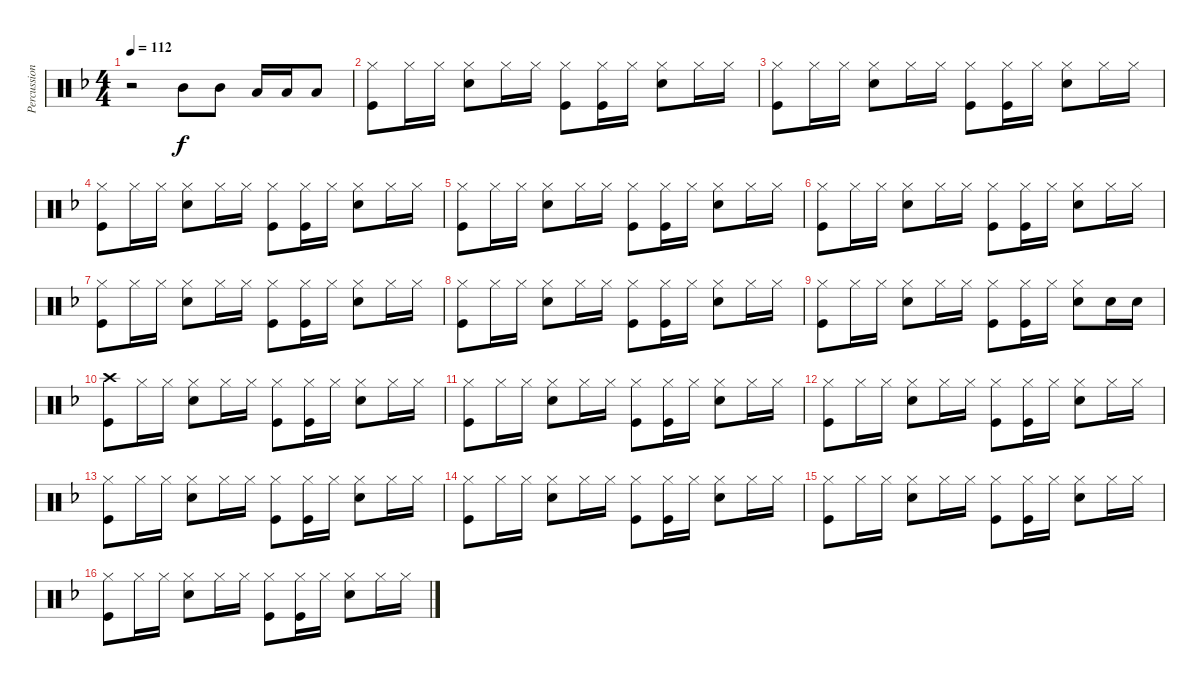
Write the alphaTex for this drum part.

\track ("Percussion" "Percussion") {instrument percussion}
\staff {score}
\articulation defaults
\ts (4 4)
\tempo 112
\clef neutral
\ks f
r.2{dy f} "Mid Tom (hit)".8 "Mid Tom (hit)".8 "Low Tom (hit)".16 "Low Tom (hit)".16 "Low Tom (hit)".8 |
("Hi-Hat (closed)" "Kick (hit)").8 "Hi-Hat (closed)".16 "Hi-Hat (closed)".16 ("Hi-Hat (closed)" "Snare (hit) 2").8 "Hi-Hat (closed)".16 "Hi-Hat (closed)".16 ("Hi-Hat (closed)" "Kick (hit)").8 ("Hi-Hat (closed)" "Kick (hit)").16 "Hi-Hat (closed)".16 ("Hi-Hat (closed)" "Snare (hit) 2").8 "Hi-Hat (closed)".16 "Hi-Hat (closed)".16 |
("Hi-Hat (closed)" "Kick (hit)").8 "Hi-Hat (closed)".16 "Hi-Hat (closed)".16 ("Hi-Hat (closed)" "Snare (hit) 2").8 "Hi-Hat (closed)".16 "Hi-Hat (closed)".16 ("Hi-Hat (closed)" "Kick (hit)").8 ("Hi-Hat (closed)" "Kick (hit)").16 "Hi-Hat (closed)".16 ("Hi-Hat (closed)" "Snare (hit) 2").8 "Hi-Hat (closed)".16 "Hi-Hat (closed)".16 |
("Hi-Hat (closed)" "Kick (hit)").8 "Hi-Hat (closed)".16 "Hi-Hat (closed)".16 ("Hi-Hat (closed)" "Snare (hit) 2").8 "Hi-Hat (closed)".16 "Hi-Hat (closed)".16 ("Hi-Hat (closed)" "Kick (hit)").8 ("Hi-Hat (closed)" "Kick (hit)").16 "Hi-Hat (closed)".16 ("Hi-Hat (closed)" "Snare (hit) 2").8 "Hi-Hat (closed)".16 "Hi-Hat (closed)".16 |
("Hi-Hat (closed)" "Kick (hit)").8 "Hi-Hat (closed)".16 "Hi-Hat (closed)".16 ("Hi-Hat (closed)" "Snare (hit) 2").8 "Hi-Hat (closed)".16 "Hi-Hat (closed)".16 ("Hi-Hat (closed)" "Kick (hit)").8 ("Hi-Hat (closed)" "Kick (hit)").16 "Hi-Hat (closed)".16 ("Hi-Hat (closed)" "Snare (hit) 2").8 "Hi-Hat (closed)".16 "Hi-Hat (closed)".16 |
("Hi-Hat (closed)" "Kick (hit)").8 "Hi-Hat (closed)".16 "Hi-Hat (closed)".16 ("Hi-Hat (closed)" "Snare (hit) 2").8 "Hi-Hat (closed)".16 "Hi-Hat (closed)".16 ("Hi-Hat (closed)" "Kick (hit)").8 ("Hi-Hat (closed)" "Kick (hit)").16 "Hi-Hat (closed)".16 ("Hi-Hat (closed)" "Snare (hit) 2").8 "Hi-Hat (closed)".16 "Hi-Hat (closed)".16 |
("Hi-Hat (closed)" "Kick (hit)").8 "Hi-Hat (closed)".16 "Hi-Hat (closed)".16 ("Hi-Hat (closed)" "Snare (hit) 2").8 "Hi-Hat (closed)".16 "Hi-Hat (closed)".16 ("Hi-Hat (closed)" "Kick (hit)").8 ("Hi-Hat (closed)" "Kick (hit)").16 "Hi-Hat (closed)".16 ("Hi-Hat (closed)" "Snare (hit) 2").8 "Hi-Hat (closed)".16 "Hi-Hat (closed)".16 |
("Hi-Hat (closed)" "Kick (hit)").8 "Hi-Hat (closed)".16 "Hi-Hat (closed)".16 ("Hi-Hat (closed)" "Snare (hit) 2").8 "Hi-Hat (closed)".16 "Hi-Hat (closed)".16 ("Hi-Hat (closed)" "Kick (hit)").8 ("Hi-Hat (closed)" "Kick (hit)").16 "Hi-Hat (closed)".16 ("Hi-Hat (closed)" "Snare (hit) 2").8 "Hi-Hat (closed)".16 "Hi-Hat (closed)".16 |
("Hi-Hat (closed)" "Kick (hit)").8 "Hi-Hat (closed)".16 "Hi-Hat (closed)".16 ("Hi-Hat (closed)" "Snare (hit) 2").8 "Hi-Hat (closed)".16 "Hi-Hat (closed)".16 ("Hi-Hat (closed)" "Kick (hit)").8 ("Hi-Hat (closed)" "Kick (hit)").16 "Hi-Hat (closed)".16 ("Hi-Hat (closed)" "Snare (hit) 2").8 "Snare (hit) 2".16 "Snare (hit) 2".16 |
("Crash high (hit)" "Kick (hit)").8 "Hi-Hat (closed)".16 "Hi-Hat (closed)".16 ("Hi-Hat (closed)" "Snare (hit) 2").8 "Hi-Hat (closed)".16 "Hi-Hat (closed)".16 ("Hi-Hat (closed)" "Kick (hit)").8 ("Hi-Hat (closed)" "Kick (hit)").16 "Hi-Hat (closed)".16 ("Hi-Hat (closed)" "Snare (hit) 2").8 "Hi-Hat (closed)".16 "Hi-Hat (closed)".16 |
("Hi-Hat (closed)" "Kick (hit)").8 "Hi-Hat (closed)".16 "Hi-Hat (closed)".16 ("Hi-Hat (closed)" "Snare (hit) 2").8 "Hi-Hat (closed)".16 "Hi-Hat (closed)".16 ("Hi-Hat (closed)" "Kick (hit)").8 ("Hi-Hat (closed)" "Kick (hit)").16 "Hi-Hat (closed)".16 ("Hi-Hat (closed)" "Snare (hit) 2").8 "Hi-Hat (closed)".16 "Hi-Hat (closed)".16 |
("Hi-Hat (closed)" "Kick (hit)").8 "Hi-Hat (closed)".16 "Hi-Hat (closed)".16 ("Hi-Hat (closed)" "Snare (hit) 2").8 "Hi-Hat (closed)".16 "Hi-Hat (closed)".16 ("Hi-Hat (closed)" "Kick (hit)").8 ("Hi-Hat (closed)" "Kick (hit)").16 "Hi-Hat (closed)".16 ("Hi-Hat (closed)" "Snare (hit) 2").8 "Hi-Hat (closed)".16 "Hi-Hat (closed)".16 |
("Hi-Hat (closed)" "Kick (hit)").8 "Hi-Hat (closed)".16 "Hi-Hat (closed)".16 ("Hi-Hat (closed)" "Snare (hit) 2").8 "Hi-Hat (closed)".16 "Hi-Hat (closed)".16 ("Hi-Hat (closed)" "Kick (hit)").8 ("Hi-Hat (closed)" "Kick (hit)").16 "Hi-Hat (closed)".16 ("Hi-Hat (closed)" "Snare (hit) 2").8 "Hi-Hat (closed)".16 "Hi-Hat (closed)".16 |
("Hi-Hat (closed)" "Kick (hit)").8 "Hi-Hat (closed)".16 "Hi-Hat (closed)".16 ("Hi-Hat (closed)" "Snare (hit) 2").8 "Hi-Hat (closed)".16 "Hi-Hat (closed)".16 ("Hi-Hat (closed)" "Kick (hit)").8 ("Hi-Hat (closed)" "Kick (hit)").16 "Hi-Hat (closed)".16 ("Hi-Hat (closed)" "Snare (hit) 2").8 "Hi-Hat (closed)".16 "Hi-Hat (closed)".16 |
("Hi-Hat (closed)" "Kick (hit)").8 "Hi-Hat (closed)".16 "Hi-Hat (closed)".16 ("Hi-Hat (closed)" "Snare (hit) 2").8 "Hi-Hat (closed)".16 "Hi-Hat (closed)".16 ("Hi-Hat (closed)" "Kick (hit)").8 ("Hi-Hat (closed)" "Kick (hit)").16 "Hi-Hat (closed)".16 ("Hi-Hat (closed)" "Snare (hit) 2").8 "Hi-Hat (closed)".16 "Hi-Hat (closed)".16 |
("Hi-Hat (closed)" "Kick (hit)").8 "Hi-Hat (closed)".16 "Hi-Hat (closed)".16 ("Hi-Hat (closed)" "Snare (hit) 2").8 "Hi-Hat (closed)".16 "Hi-Hat (closed)".16 ("Hi-Hat (closed)" "Kick (hit)").8 ("Hi-Hat (closed)" "Kick (hit)").16 "Hi-Hat (closed)".16 ("Hi-Hat (closed)" "Snare (hit) 2").8 "Hi-Hat (closed)".16 "Hi-Hat (closed)".16
